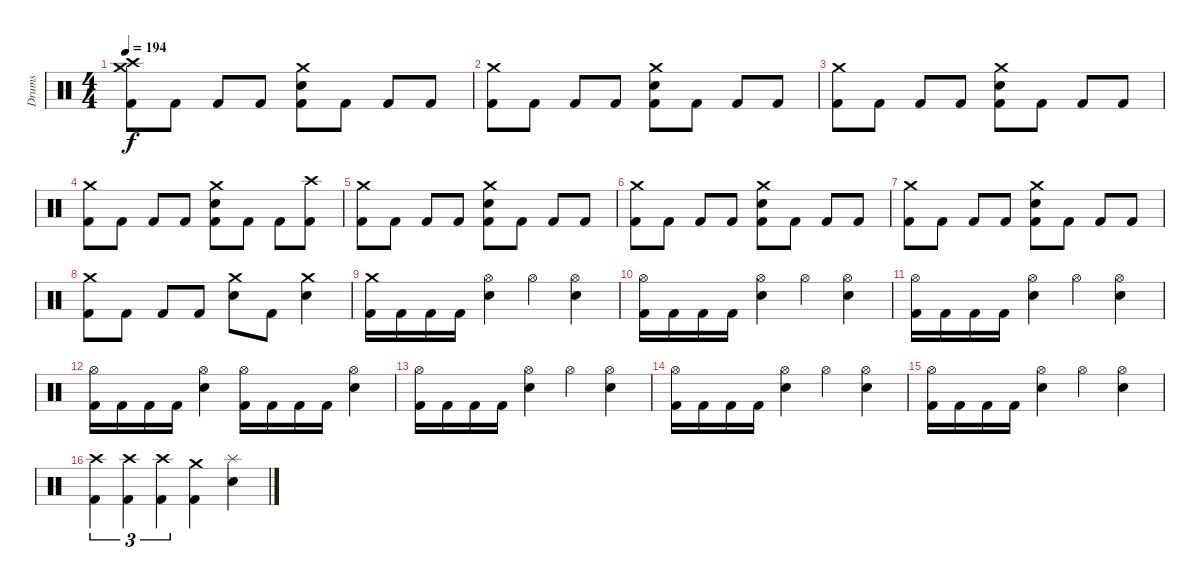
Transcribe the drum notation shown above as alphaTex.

\track ("Drums" "Drums") {instrument percussion}
\staff {score}
\articulation defaults
\ts (4 4)
\tempo 194
\clef neutral
\ks c
("Crash medium (hit)" "Crash high (hit)" "Kick (hit) 2").8{dy f} "Kick (hit) 2".8 "Kick (hit) 2".8 "Kick (hit) 2".8 ("Crash medium (hit)" "Electric Snare (hit)" "Kick (hit) 2").8 "Kick (hit) 2".8 "Kick (hit) 2".8 "Kick (hit) 2".8 |
("Crash medium (hit)" "Kick (hit) 2").8 "Kick (hit) 2".8 "Kick (hit) 2".8 "Kick (hit) 2".8 ("Crash medium (hit)" "Electric Snare (hit)" "Kick (hit) 2").8 "Kick (hit) 2".8 "Kick (hit) 2".8 "Kick (hit) 2".8 |
("Crash medium (hit)" "Kick (hit) 2").8 "Kick (hit) 2".8 "Kick (hit) 2".8 "Kick (hit) 2".8 ("Crash medium (hit)" "Electric Snare (hit)" "Kick (hit) 2").8 "Kick (hit) 2".8 "Kick (hit) 2".8 "Kick (hit) 2".8 |
("Crash medium (hit)" "Kick (hit) 2").8 "Kick (hit) 2".8 "Kick (hit) 2".8 "Kick (hit) 2".8 ("Crash medium (hit)" "Electric Snare (hit)" "Kick (hit) 2").8 "Kick (hit) 2".8 "Kick (hit) 2".8 ("Crash high (hit)" "Kick (hit) 2").8 |
("Crash medium (hit)" "Kick (hit) 2").8 "Kick (hit) 2".8 "Kick (hit) 2".8 "Kick (hit) 2".8 ("Crash medium (hit)" "Electric Snare (hit)" "Kick (hit) 2").8 "Kick (hit) 2".8 "Kick (hit) 2".8 "Kick (hit) 2".8 |
("Crash medium (hit)" "Kick (hit) 2").8 "Kick (hit) 2".8 "Kick (hit) 2".8 "Kick (hit) 2".8 ("Crash medium (hit)" "Electric Snare (hit)" "Kick (hit) 2").8 "Kick (hit) 2".8 "Kick (hit) 2".8 "Kick (hit) 2".8 |
("Crash medium (hit)" "Kick (hit) 2").8 "Kick (hit) 2".8 "Kick (hit) 2".8 "Kick (hit) 2".8 ("Crash medium (hit)" "Electric Snare (hit)" "Kick (hit) 2").8 "Kick (hit) 2".8 "Kick (hit) 2".8 "Kick (hit) 2".8 |
("Crash medium (hit)" "Kick (hit) 2").8 "Kick (hit) 2".8 "Kick (hit) 2".8 "Kick (hit) 2".8 ("Crash medium (hit)" "Electric Snare (hit)").8 "Kick (hit) 2".8 ("Crash medium (hit)" "Electric Snare (hit)").4 |
("Crash medium (hit)" "Kick (hit) 2").16 "Kick (hit) 2".16 "Kick (hit) 2".16 "Kick (hit) 2".16 ("Hi-Hat (open)" "Electric Snare (hit)").4 "Hi-Hat (open)".4 ("Hi-Hat (open)" "Electric Snare (hit)").4 |
("Hi-Hat (open)" "Kick (hit) 2").16 "Kick (hit) 2".16 "Kick (hit) 2".16 "Kick (hit) 2".16 ("Hi-Hat (open)" "Electric Snare (hit)").4 "Hi-Hat (open)".4 ("Hi-Hat (open)" "Electric Snare (hit)").4 |
("Hi-Hat (open)" "Kick (hit) 2").16 "Kick (hit) 2".16 "Kick (hit) 2".16 "Kick (hit) 2".16 ("Hi-Hat (open)" "Electric Snare (hit)").4 "Hi-Hat (open)".4 ("Hi-Hat (open)" "Electric Snare (hit)").4 |
("Hi-Hat (open)" "Kick (hit) 2").16 "Kick (hit) 2".16 "Kick (hit) 2".16 "Kick (hit) 2".16 ("Hi-Hat (open)" "Electric Snare (hit)").4 ("Hi-Hat (open)" "Kick (hit) 2").16 "Kick (hit) 2".16 "Kick (hit) 2".16 "Kick (hit) 2".16 ("Hi-Hat (open)" "Electric Snare (hit)").4 |
("Hi-Hat (open)" "Kick (hit) 2").16 "Kick (hit) 2".16 "Kick (hit) 2".16 "Kick (hit) 2".16 ("Hi-Hat (open)" "Electric Snare (hit)").4 "Hi-Hat (open)".4 ("Hi-Hat (open)" "Electric Snare (hit)").4 |
("Hi-Hat (open)" "Kick (hit) 2").16 "Kick (hit) 2".16 "Kick (hit) 2".16 "Kick (hit) 2".16 ("Hi-Hat (open)" "Electric Snare (hit)").4 "Hi-Hat (open)".4 ("Hi-Hat (open)" "Electric Snare (hit)").4 |
("Hi-Hat (open)" "Kick (hit) 2").16 "Kick (hit) 2".16 "Kick (hit) 2".16 "Kick (hit) 2".16 ("Hi-Hat (open)" "Electric Snare (hit)").4 "Hi-Hat (open)".4 ("Hi-Hat (open)" "Electric Snare (hit)").4 |
("Crash high (hit)" "Kick (hit) 2").4{tu (3 2)} ("Crash high (hit)" "Kick (hit) 2").4{tu (3 2)} ("Crash high (hit)" "Kick (hit) 2").4{tu (3 2)} ("Crash medium (hit)" "Kick (hit) 2").4 ("Splash (hit)" "Electric Snare (hit)").4
